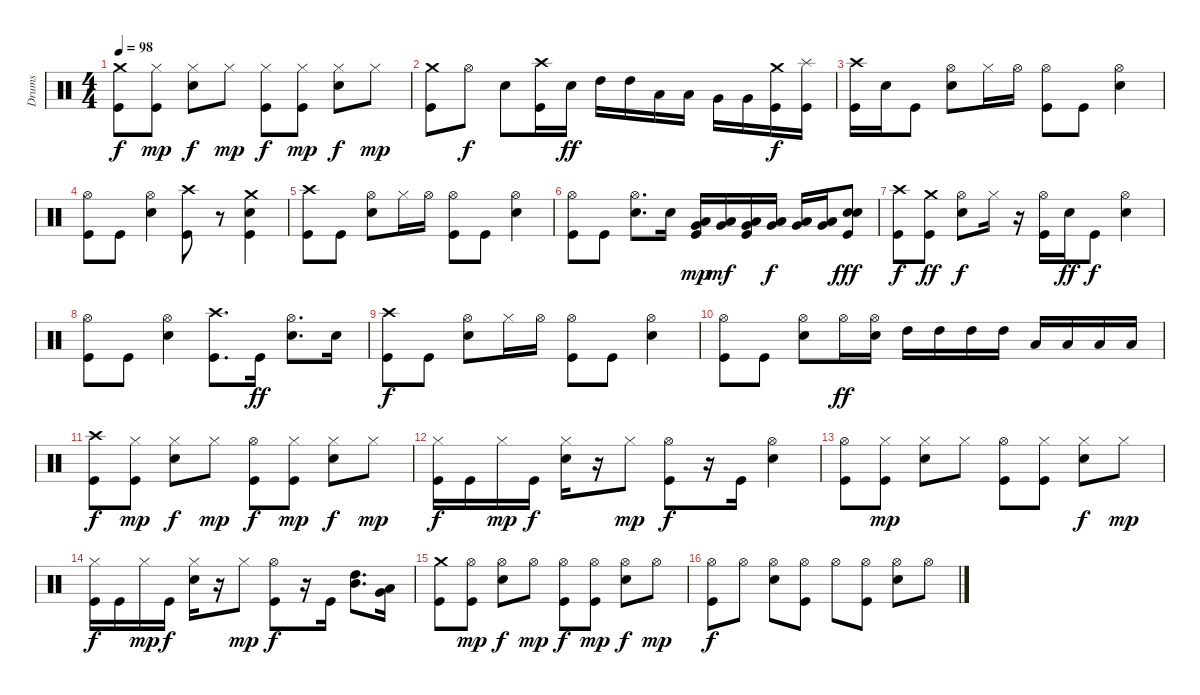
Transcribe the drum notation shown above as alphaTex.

\track ("Drums" "Drums") {instrument percussion}
\staff {score}
\articulation defaults
\ts (4 4)
\tempo 98
\clef neutral
\ks c
("Crash medium (hit)" "Kick (hit)").8{dy f} ("Hi-Hat (closed)" "Kick (hit)").8{dy mp} ("Hi-Hat (closed)" "Snare (hit) 2").8{dy f} "Hi-Hat (closed)".8{dy mp} ("Hi-Hat (closed)" "Kick (hit)").8{dy f} ("Hi-Hat (closed)" "Kick (hit)").8{dy mp} ("Hi-Hat (closed)" "Snare (hit) 2").8{dy f} "Hi-Hat (closed)".8{dy mp} |
("Crash medium (hit)" "Kick (hit)").8 "Hi-Hat (open)".8{dy f} "Snare (hit) 2".8 ("Crash high (hit)" "Kick (hit)").16 "Snare (hit) 2".16{dy ff} "High Tom (hit)".16 "High Tom (hit)".16 "Low Tom (hit)".16 "Low Tom (hit)".16 "Very Low Tom (hit)".16 "Very Low Tom (hit)".16 ("Crash medium (hit)" "Kick (hit)").16{dy f} ("Splash (hit)" "Kick (hit)").16 |
("Crash high (hit)" "Kick (hit)").16 "Snare (hit) 2".16 "Kick (hit)".8 ("Hi-Hat (open)" "Snare (hit) 2").8 "Hi-Hat (closed)".16 "Hi-Hat (open)".16 ("Hi-Hat (open)" "Kick (hit)").8 "Kick (hit)".8 ("Hi-Hat (open)" "Snare (hit) 2").4 |
("Hi-Hat (open)" "Kick (hit)").8 "Kick (hit)".8 ("Hi-Hat (open)" "Snare (hit) 2").4 ("Crash high (hit)" "Kick (hit)").8 r.8 ("Crash medium (hit)" "Snare (hit) 2" "Kick (hit)").4 |
("Crash high (hit)" "Kick (hit)").8 "Kick (hit)".8 ("Hi-Hat (open)" "Snare (hit) 2").8 "Hi-Hat (closed)".16 "Hi-Hat (open)".16 ("Hi-Hat (open)" "Kick (hit)").8 "Kick (hit)".8 ("Hi-Hat (open)" "Snare (hit) 2").4 |
("Hi-Hat (open)" "Kick (hit)").8 "Kick (hit)".8 ("Hi-Hat (open)" "Snare (hit) 2").8{d} "Snare (hit) 2".16 ("Low Tom (hit)" "Very Low Tom (hit)" "Kick (hit)").16{dy mp} ("Low Tom (hit)" "Very Low Tom (hit)").16{dy mf} ("Low Tom (hit)" "Very Low Tom (hit)" "Kick (hit)").16 ("Low Tom (hit)" "Very Low Tom (hit)").16{dy f} ("Low Tom (hit)" "Very Low Tom (hit)").16 ("Low Tom (hit)" "Very Low Tom (hit)").16 ("Electric Snare (hit)" "Snare (hit) 2" "Kick (hit)").8{dy fff} |
("Crash high (hit)" "Kick (hit)").8{dy f} ("Crash medium (hit)" "Kick (hit)").8{dy ff} ("Hi-Hat (open)" "Snare (hit) 2").8{dy f} "Hi-Hat (closed)".16 r.16 ("Hi-Hat (open)" "Kick (hit)").16 "Snare (hit) 2".16{dy ff} "Kick (hit)".8{dy f} ("Hi-Hat (open)" "Snare (hit) 2").4 |
("Hi-Hat (open)" "Kick (hit)").8 "Kick (hit)".8 ("Hi-Hat (open)" "Snare (hit) 2").4 ("Crash high (hit)" "Kick (hit)").8{d} "Kick (hit)".16{dy ff} ("Hi-Hat (open)" "Snare (hit) 2").8{d} "Snare (hit) 2".16 |
("Crash high (hit)" "Kick (hit)").8{dy f} "Kick (hit)".8 ("Hi-Hat (open)" "Snare (hit) 2").8 "Hi-Hat (closed)".16 "Hi-Hat (open)".16 ("Hi-Hat (open)" "Kick (hit)").8 "Kick (hit)".8 ("Hi-Hat (open)" "Snare (hit) 2").4 |
("Hi-Hat (open)" "Kick (hit)").8 "Kick (hit)".8 ("Hi-Hat (open)" "Snare (hit) 2").8 "Hi-Hat (open)".16{dy ff} ("Hi-Hat (open)" "Snare (hit) 2").16 "High Tom (hit)".16 "High Tom (hit)".16 "High Tom (hit)".16 "High Tom (hit)".16 "Low Tom (hit)".16 "Low Tom (hit)".16 "Low Floor Tom (hit)".16 "Low Floor Tom (hit)".16 |
("Crash high (hit)" "Kick (hit)").8{dy f} ("Hi-Hat (closed)" "Kick (hit)").8{dy mp} ("Hi-Hat (closed)" "Snare (hit) 2").8{dy f} "Hi-Hat (closed)".8{dy mp} ("Hi-Hat (open)" "Kick (hit)").8{dy f} ("Hi-Hat (closed)" "Kick (hit)").8{dy mp} ("Hi-Hat (closed)" "Snare (hit) 2").8{dy f} "Hi-Hat (closed)".8{dy mp} |
("Hi-Hat (closed)" "Kick (hit)").16{dy f} "Kick (hit)".16 "Hi-Hat (closed)".16{dy mp} "Kick (hit)".16{dy f} ("Hi-Hat (closed)" "Snare (hit) 2").16 r.16 "Hi-Hat (closed)".8{dy mp} ("Hi-Hat (open)" "Kick (hit)").8{dy f} r.16 "Kick (hit)".16 ("Hi-Hat (open)" "Snare (hit) 2").4 |
("Hi-Hat (open)" "Kick (hit)").8 ("Hi-Hat (closed)" "Kick (hit)").8{dy mp} ("Hi-Hat (closed)" "Snare (hit) 2").8 "Hi-Hat (closed)".8 ("Hi-Hat (open)" "Kick (hit)").8 ("Hi-Hat (closed)" "Kick (hit)").8 ("Hi-Hat (closed)" "Snare (hit) 2").8{dy f} "Hi-Hat (closed)".8{dy mp} |
("Hi-Hat (closed)" "Kick (hit)").16{dy f} "Kick (hit)".16 "Hi-Hat (closed)".16{dy mp} "Kick (hit)".16{dy f} ("Hi-Hat (closed)" "Snare (hit) 2").16 r.16 "Hi-Hat (closed)".8{dy mp} ("Hi-Hat (open)" "Kick (hit)").8{dy f} r.16 "Kick (hit)".16 ("High Tom (hit)" "Mid Tom (hit)").8{d} ("Low Floor Tom (hit)" "Very Low Tom (hit)").16 |
("Crash medium (hit)" "Kick (hit)").8 ("Hi-Hat (open)" "Kick (hit)").8{dy mp} ("Hi-Hat (open)" "Snare (hit) 2").8{dy f} "Hi-Hat (open)".8{dy mp} ("Hi-Hat (open)" "Kick (hit)").8{dy f} ("Hi-Hat (open)" "Kick (hit)").8{dy mp} ("Hi-Hat (open)" "Snare (hit) 2").8{dy f} "Hi-Hat (open)".8{dy mp} |
("Hi-Hat (open)" "Kick (hit)").8{dy f} "Hi-Hat (open)".8 ("Hi-Hat (open)" "Snare (hit) 2").8 ("Hi-Hat (open)" "Kick (hit)").8 "Hi-Hat (open)".8 ("Hi-Hat (open)" "Kick (hit)").8 ("Hi-Hat (open)" "Snare (hit) 2").8 "Hi-Hat (open)".8
